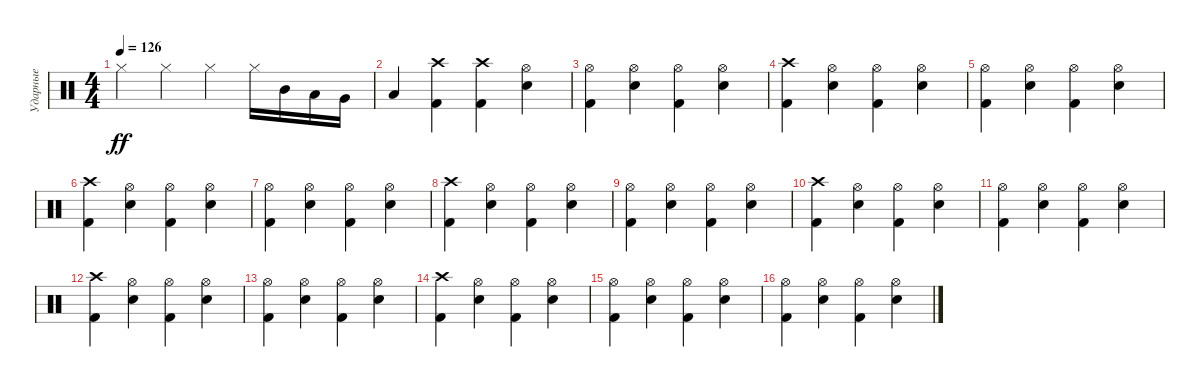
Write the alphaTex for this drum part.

\track ("Ударные" "Ударные") {instrument percussion}
\staff {score}
\articulation defaults
\ts (4 4)
\tempo 126
\clef neutral
\ks c "Hi-Hat (closed)".4{dy ff} "Hi-Hat (closed)".4 "Hi-Hat (closed)".4 "Hi-Hat (closed)".16 "Mid Tom (hit)".16 "Low Tom (hit)".16 "Very Low Tom (hit)".16
|
"Low Floor Tom (hit)".4 ("Kick (hit) 2" "Crash high (hit)").4 ("Kick (hit) 2" "Crash high (hit)").4 ("Electric Snare (hit)" "Hi-Hat (open)").4 |
("Hi-Hat (open)" "Kick (hit) 2").4 ("Hi-Hat (open)" "Electric Snare (hit)").4 ("Hi-Hat (open)" "Kick (hit) 2").4 ("Hi-Hat (open)" "Electric Snare (hit)").4 |
("Crash high (hit)" "Kick (hit) 2").4 ("Hi-Hat (open)" "Electric Snare (hit)").4 ("Hi-Hat (open)" "Kick (hit) 2").4 ("Hi-Hat (open)" "Electric Snare (hit)").4 |
("Hi-Hat (open)" "Kick (hit) 2").4 ("Hi-Hat (open)" "Electric Snare (hit)").4 ("Hi-Hat (open)" "Kick (hit) 2").4 ("Hi-Hat (open)" "Electric Snare (hit)").4 |
("Crash high (hit)" "Kick (hit) 2").4 ("Hi-Hat (open)" "Electric Snare (hit)").4 ("Hi-Hat (open)" "Kick (hit) 2").4 ("Hi-Hat (open)" "Electric Snare (hit)").4 |
("Hi-Hat (open)" "Kick (hit) 2").4 ("Hi-Hat (open)" "Electric Snare (hit)").4 ("Hi-Hat (open)" "Kick (hit) 2").4 ("Hi-Hat (open)" "Electric Snare (hit)").4 |
("Crash high (hit)" "Kick (hit) 2").4 ("Hi-Hat (open)" "Electric Snare (hit)").4 ("Hi-Hat (open)" "Kick (hit) 2").4 ("Hi-Hat (open)" "Electric Snare (hit)").4 |
("Hi-Hat (open)" "Kick (hit) 2").4 ("Hi-Hat (open)" "Electric Snare (hit)").4 ("Hi-Hat (open)" "Kick (hit) 2").4 ("Hi-Hat (open)" "Electric Snare (hit)").4 |
("Crash high (hit)" "Kick (hit) 2").4 ("Hi-Hat (open)" "Electric Snare (hit)").4 ("Hi-Hat (open)" "Kick (hit) 2").4 ("Hi-Hat (open)" "Electric Snare (hit)").4 |
("Hi-Hat (open)" "Kick (hit) 2").4 ("Hi-Hat (open)" "Electric Snare (hit)").4 ("Hi-Hat (open)" "Kick (hit) 2").4 ("Hi-Hat (open)" "Electric Snare (hit)").4 |
("Crash high (hit)" "Kick (hit) 2").4 ("Hi-Hat (open)" "Electric Snare (hit)").4 ("Hi-Hat (open)" "Kick (hit) 2").4 ("Hi-Hat (open)" "Electric Snare (hit)").4 |
("Hi-Hat (open)" "Kick (hit) 2").4 ("Hi-Hat (open)" "Electric Snare (hit)").4 ("Hi-Hat (open)" "Kick (hit) 2").4 ("Hi-Hat (open)" "Electric Snare (hit)").4 |
("Crash high (hit)" "Kick (hit) 2").4 ("Hi-Hat (open)" "Electric Snare (hit)").4 ("Hi-Hat (open)" "Kick (hit) 2").4 ("Hi-Hat (open)" "Electric Snare (hit)").4 |
("Hi-Hat (open)" "Kick (hit) 2").4 ("Hi-Hat (open)" "Electric Snare (hit)").4 ("Hi-Hat (open)" "Kick (hit) 2").4 ("Hi-Hat (open)" "Electric Snare (hit)").4 |
("Hi-Hat (open)" "Kick (hit) 2").4 ("Hi-Hat (open)" "Electric Snare (hit)").4 ("Hi-Hat (open)" "Kick (hit) 2").4 ("Hi-Hat (open)" "Electric Snare (hit)").4
